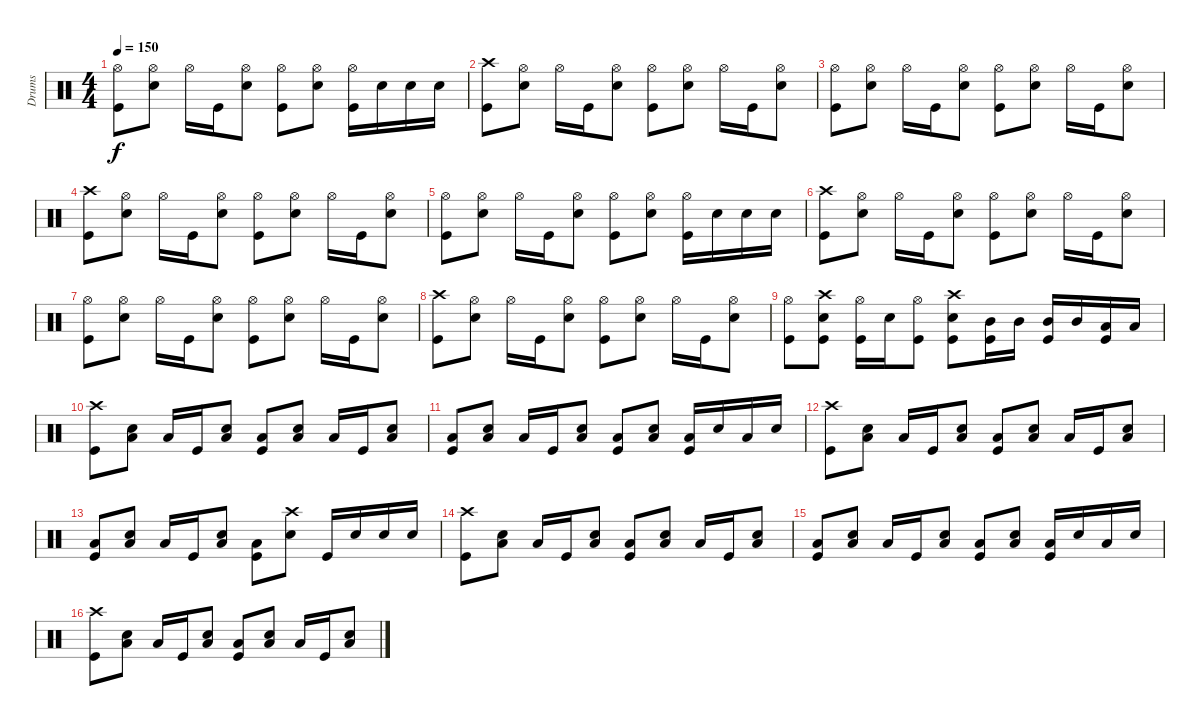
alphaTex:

\track ("Drums" "Drums") {instrument percussion}
\staff {score}
\articulation defaults
\ts (4 4)
\tempo 150
\clef neutral
\ks c
("Hi-Hat (open)" "Kick (hit)").8{dy f} ("Hi-Hat (open)" "Snare (hit) 2").8 "Hi-Hat (open)".16 "Kick (hit)".16 ("Hi-Hat (open)" "Snare (hit) 2").8 ("Hi-Hat (open)" "Kick (hit)").8 ("Hi-Hat (open)" "Snare (hit) 2").8 ("Hi-Hat (open)" "Kick (hit)").16 "Snare (hit) 2".16 "Snare (hit) 2".16 "Snare (hit) 2".16 |
("Crash high (hit)" "Kick (hit)").8 ("Hi-Hat (open)" "Snare (hit) 2").8 "Hi-Hat (open)".16 "Kick (hit)".16 ("Hi-Hat (open)" "Snare (hit) 2").8 ("Hi-Hat (open)" "Kick (hit)").8 ("Hi-Hat (open)" "Snare (hit) 2").8 "Hi-Hat (open)".16 "Kick (hit)".16 ("Hi-Hat (open)" "Snare (hit) 2").8 |
("Hi-Hat (open)" "Kick (hit)").8 ("Hi-Hat (open)" "Snare (hit) 2").8 "Hi-Hat (open)".16 "Kick (hit)".16 ("Hi-Hat (open)" "Snare (hit) 2").8 ("Hi-Hat (open)" "Kick (hit)").8 ("Hi-Hat (open)" "Snare (hit) 2").8 "Hi-Hat (open)".16 "Kick (hit)".16 ("Hi-Hat (open)" "Snare (hit) 2").8 |
("Crash high (hit)" "Kick (hit)").8 ("Hi-Hat (open)" "Snare (hit) 2").8 "Hi-Hat (open)".16 "Kick (hit)".16 ("Hi-Hat (open)" "Snare (hit) 2").8 ("Hi-Hat (open)" "Kick (hit)").8 ("Hi-Hat (open)" "Snare (hit) 2").8 "Hi-Hat (open)".16 "Kick (hit)".16 ("Hi-Hat (open)" "Snare (hit) 2").8 |
("Hi-Hat (open)" "Kick (hit)").8 ("Hi-Hat (open)" "Snare (hit) 2").8 "Hi-Hat (open)".16 "Kick (hit)".16 ("Hi-Hat (open)" "Snare (hit) 2").8 ("Hi-Hat (open)" "Kick (hit)").8 ("Hi-Hat (open)" "Snare (hit) 2").8 ("Hi-Hat (open)" "Kick (hit)").16 "Snare (hit) 2".16 "Snare (hit) 2".16 "Snare (hit) 2".16 |
("Crash high (hit)" "Kick (hit)").8 ("Hi-Hat (open)" "Snare (hit) 2").8 "Hi-Hat (open)".16 "Kick (hit)".16 ("Hi-Hat (open)" "Snare (hit) 2").8 ("Hi-Hat (open)" "Kick (hit)").8 ("Hi-Hat (open)" "Snare (hit) 2").8 "Hi-Hat (open)".16 "Kick (hit)".16 ("Hi-Hat (open)" "Snare (hit) 2").8 |
("Hi-Hat (open)" "Kick (hit)").8 ("Hi-Hat (open)" "Snare (hit) 2").8 "Hi-Hat (open)".16 "Kick (hit)".16 ("Hi-Hat (open)" "Snare (hit) 2").8 ("Hi-Hat (open)" "Kick (hit)").8 ("Hi-Hat (open)" "Snare (hit) 2").8 "Hi-Hat (open)".16 "Kick (hit)".16 ("Hi-Hat (open)" "Snare (hit) 2").8 |
("Crash high (hit)" "Kick (hit)").8 ("Hi-Hat (open)" "Snare (hit) 2").8 "Hi-Hat (open)".16 "Kick (hit)".16 ("Hi-Hat (open)" "Snare (hit) 2").8 ("Hi-Hat (open)" "Kick (hit)").8 ("Hi-Hat (open)" "Snare (hit) 2").8 "Hi-Hat (open)".16 "Kick (hit)".16 ("Hi-Hat (open)" "Snare (hit) 2").8 |
("Hi-Hat (open)" "Kick (hit)").8 ("Crash high (hit)" "Snare (hit) 2" "Kick (hit)").8 ("Hi-Hat (open)" "Kick (hit)").16 "Snare (hit) 2".16 ("Hi-Hat (open)" "Kick (hit)").8 ("Crash high (hit)" "Snare (hit) 2" "Kick (hit)").8 ("Mid Tom (hit)" "Kick (hit)").16 "Mid Tom (hit)".16 ("Mid Tom (hit)" "Kick (hit)").16 "Mid Tom (hit)".16 ("Low Tom (hit)" "Kick (hit)").16 "Low Tom (hit)".16 |
("Crash high (hit)" "Kick (hit)").8 ("Low Floor Tom (hit)" "Snare (hit) 2").8 "Low Floor Tom (hit)".16 "Kick (hit)".16 ("Low Floor Tom (hit)" "Snare (hit) 2").8 ("Low Floor Tom (hit)" "Kick (hit)").8 ("Low Floor Tom (hit)" "Snare (hit) 2").8 "Low Floor Tom (hit)".16 "Kick (hit)".16 ("Low Floor Tom (hit)" "Snare (hit) 2").8 |
("Low Floor Tom (hit)" "Kick (hit)").8 ("Low Floor Tom (hit)" "Snare (hit) 2").8 "Low Floor Tom (hit)".16 "Kick (hit)".16 ("Low Floor Tom (hit)" "Snare (hit) 2").8 ("Low Floor Tom (hit)" "Kick (hit)").8 ("Low Floor Tom (hit)" "Snare (hit) 2").8 ("Low Floor Tom (hit)" "Kick (hit)").16 "Snare (hit) 2".16 "Low Floor Tom (hit)".16 "Snare (hit) 2".16 |
("Crash high (hit)" "Kick (hit)").8 ("Low Floor Tom (hit)" "Snare (hit) 2").8 "Low Floor Tom (hit)".16 "Kick (hit)".16 ("Low Floor Tom (hit)" "Snare (hit) 2").8 ("Low Floor Tom (hit)" "Kick (hit)").8 ("Low Floor Tom (hit)" "Snare (hit) 2").8 "Low Floor Tom (hit)".16 "Kick (hit)".16 ("Low Floor Tom (hit)" "Snare (hit) 2").8 |
("Low Floor Tom (hit)" "Kick (hit)").8 ("Low Floor Tom (hit)" "Snare (hit) 2").8 "Low Floor Tom (hit)".16 "Kick (hit)".16 ("Low Floor Tom (hit)" "Snare (hit) 2").8 ("Low Floor Tom (hit)" "Kick (hit)").8 ("Crash high (hit)" "Snare (hit) 2").8 "Kick (hit)".16 "Snare (hit) 2".16 "Snare (hit) 2".16 "Snare (hit) 2".16 |
("Crash high (hit)" "Kick (hit)").8 ("Low Floor Tom (hit)" "Snare (hit) 2").8 "Low Floor Tom (hit)".16 "Kick (hit)".16 ("Low Floor Tom (hit)" "Snare (hit) 2").8 ("Low Floor Tom (hit)" "Kick (hit)").8 ("Low Floor Tom (hit)" "Snare (hit) 2").8 "Low Floor Tom (hit)".16 "Kick (hit)".16 ("Low Floor Tom (hit)" "Snare (hit) 2").8 |
("Low Floor Tom (hit)" "Kick (hit)").8 ("Low Floor Tom (hit)" "Snare (hit) 2").8 "Low Floor Tom (hit)".16 "Kick (hit)".16 ("Low Floor Tom (hit)" "Snare (hit) 2").8 ("Low Floor Tom (hit)" "Kick (hit)").8 ("Low Floor Tom (hit)" "Snare (hit) 2").8 ("Low Floor Tom (hit)" "Kick (hit)").16 "Snare (hit) 2".16 "Low Floor Tom (hit)".16 "Snare (hit) 2".16 |
("Crash high (hit)" "Kick (hit)").8 ("Low Floor Tom (hit)" "Snare (hit) 2").8 "Low Floor Tom (hit)".16 "Kick (hit)".16 ("Low Floor Tom (hit)" "Snare (hit) 2").8 ("Low Floor Tom (hit)" "Kick (hit)").8 ("Low Floor Tom (hit)" "Snare (hit) 2").8 "Low Floor Tom (hit)".16 "Kick (hit)".16 ("Low Floor Tom (hit)" "Snare (hit) 2").8
